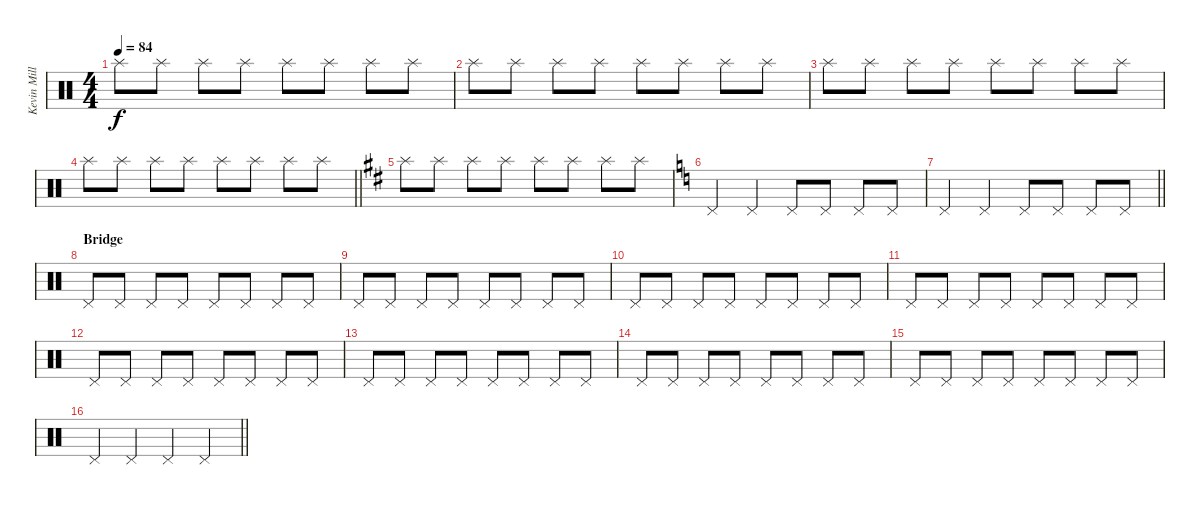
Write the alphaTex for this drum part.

\track ("Kevin Miller (Drums)" "Kevin Mill") {instrument percussion}
\staff {score}
\articulation defaults
\ts (4 4)
\tempo 84
\clef neutral
\ks c "Splash (hit)".8{dy f} "Splash (hit)".8 "Splash (hit)".8 "Splash (hit)".8 "Splash (hit)".8 "Splash (hit)".8 "Splash (hit)".8 "Splash (hit)".8
|
"Splash (hit)".8 "Splash (hit)".8 "Splash (hit)".8 "Splash (hit)".8 "Splash (hit)".8 "Splash (hit)".8 "Splash (hit)".8 "Splash (hit)".8 |
"Splash (hit)".8 "Splash (hit)".8 "Splash (hit)".8 "Splash (hit)".8 "Splash (hit)".8 "Splash (hit)".8 "Splash (hit)".8 "Splash (hit)".8 |
\barLineRight lightlight "Splash (hit)".8 "Splash (hit)".8 "Splash (hit)".8 "Splash (hit)".8 "Splash (hit)".8 "Splash (hit)".8 "Splash (hit)".8 "Splash (hit)".8
|
\ks d "Splash (hit)".8 "Splash (hit)".8 "Splash (hit)".8 "Splash (hit)".8 "Splash (hit)".8 "Splash (hit)".8 "Splash (hit)".8 "Splash (hit)".8
|
\ks c "Pedal Hi-Hat (hit)".4 "Pedal Hi-Hat (hit)".4 "Pedal Hi-Hat (hit)".8 "Pedal Hi-Hat (hit)".8 "Pedal Hi-Hat (hit)".8 "Pedal Hi-Hat (hit)".8
|
\barLineRight lightlight "Pedal Hi-Hat (hit)".4 "Pedal Hi-Hat (hit)".4 "Pedal Hi-Hat (hit)".8 "Pedal Hi-Hat (hit)".8 "Pedal Hi-Hat (hit)".8 "Pedal Hi-Hat (hit)".8
|
\section ("" "Bridge")
"Pedal Hi-Hat (hit)".8 "Pedal Hi-Hat (hit)".8 "Pedal Hi-Hat (hit)".8 "Pedal Hi-Hat (hit)".8 "Pedal Hi-Hat (hit)".8 "Pedal Hi-Hat (hit)".8 "Pedal Hi-Hat (hit)".8 "Pedal Hi-Hat (hit)".8 |
"Pedal Hi-Hat (hit)".8 "Pedal Hi-Hat (hit)".8 "Pedal Hi-Hat (hit)".8 "Pedal Hi-Hat (hit)".8 "Pedal Hi-Hat (hit)".8 "Pedal Hi-Hat (hit)".8 "Pedal Hi-Hat (hit)".8 "Pedal Hi-Hat (hit)".8 |
"Pedal Hi-Hat (hit)".8 "Pedal Hi-Hat (hit)".8 "Pedal Hi-Hat (hit)".8 "Pedal Hi-Hat (hit)".8 "Pedal Hi-Hat (hit)".8 "Pedal Hi-Hat (hit)".8 "Pedal Hi-Hat (hit)".8 "Pedal Hi-Hat (hit)".8 |
"Pedal Hi-Hat (hit)".8 "Pedal Hi-Hat (hit)".8 "Pedal Hi-Hat (hit)".8 "Pedal Hi-Hat (hit)".8 "Pedal Hi-Hat (hit)".8 "Pedal Hi-Hat (hit)".8 "Pedal Hi-Hat (hit)".8 "Pedal Hi-Hat (hit)".8 |
"Pedal Hi-Hat (hit)".8 "Pedal Hi-Hat (hit)".8 "Pedal Hi-Hat (hit)".8 "Pedal Hi-Hat (hit)".8 "Pedal Hi-Hat (hit)".8 "Pedal Hi-Hat (hit)".8 "Pedal Hi-Hat (hit)".8 "Pedal Hi-Hat (hit)".8 |
"Pedal Hi-Hat (hit)".8 "Pedal Hi-Hat (hit)".8 "Pedal Hi-Hat (hit)".8 "Pedal Hi-Hat (hit)".8 "Pedal Hi-Hat (hit)".8 "Pedal Hi-Hat (hit)".8 "Pedal Hi-Hat (hit)".8 "Pedal Hi-Hat (hit)".8 |
"Pedal Hi-Hat (hit)".8 "Pedal Hi-Hat (hit)".8 "Pedal Hi-Hat (hit)".8 "Pedal Hi-Hat (hit)".8 "Pedal Hi-Hat (hit)".8 "Pedal Hi-Hat (hit)".8 "Pedal Hi-Hat (hit)".8 "Pedal Hi-Hat (hit)".8 |
"Pedal Hi-Hat (hit)".8 "Pedal Hi-Hat (hit)".8 "Pedal Hi-Hat (hit)".8 "Pedal Hi-Hat (hit)".8 "Pedal Hi-Hat (hit)".8 "Pedal Hi-Hat (hit)".8 "Pedal Hi-Hat (hit)".8 "Pedal Hi-Hat (hit)".8 |
\barLineRight lightlight "Pedal Hi-Hat (hit)".4 "Pedal Hi-Hat (hit)".4 "Pedal Hi-Hat (hit)".4 "Pedal Hi-Hat (hit)".4
